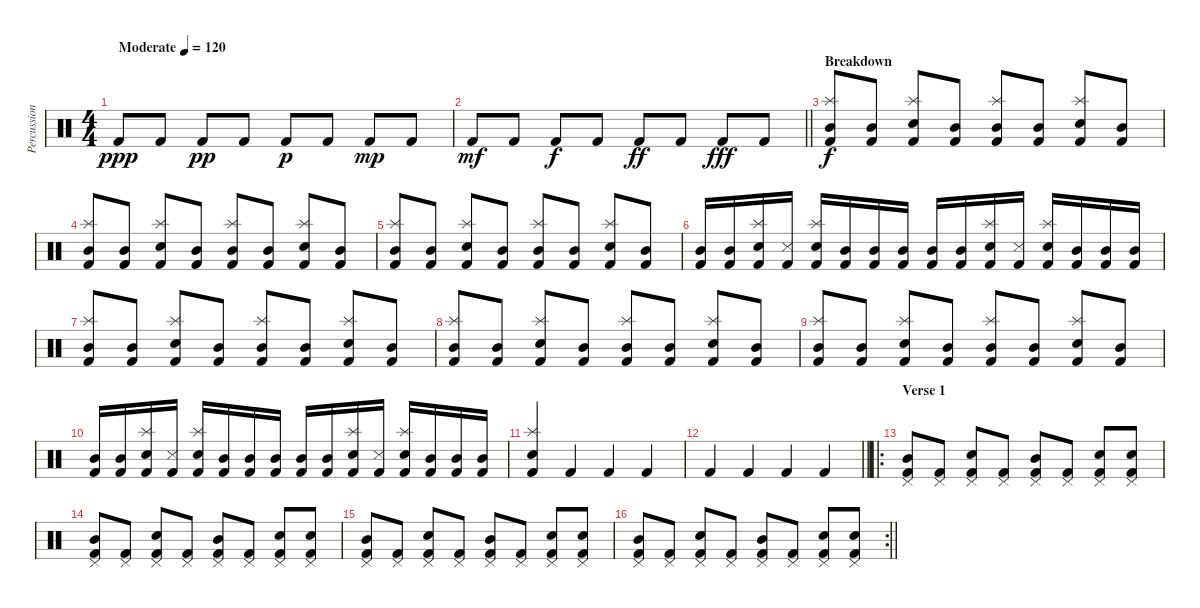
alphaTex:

\track ("Percussion" "Percussion") {instrument percussion}
\staff {score}
\articulation defaults
\ts (4 4)
\tempo (120 "Moderate")
\clef neutral
\ks c "Kick (hit) 2".8{dy ppp} "Kick (hit) 2".8 "Kick (hit) 2".8{dy pp} "Kick (hit) 2".8 "Kick (hit) 2".8{dy p} "Kick (hit) 2".8 "Kick (hit) 2".8{dy mp} "Kick (hit) 2".8
|
\barLineRight lightlight "Kick (hit) 2".8{dy mf} "Kick (hit) 2".8 "Kick (hit) 2".8{dy f} "Kick (hit) 2".8 "Kick (hit) 2".8{dy ff} "Kick (hit) 2".8 "Kick (hit) 2".8{dy fff} "Kick (hit) 2".8
|
\section ("" "Breakdown")
("Splash (hit)" "Mid Tom (hit)" "Kick (hit) 2").8{dy f} ("Mid Tom (hit)" "Kick (hit) 2").8 ("Splash (hit)" "Electric Snare (hit)" "Kick (hit) 2").8 ("Mid Tom (hit)" "Kick (hit) 2").8 ("Splash (hit)" "Mid Tom (hit)" "Kick (hit) 2").8 ("Mid Tom (hit)" "Kick (hit) 2").8 ("Splash (hit)" "Electric Snare (hit)" "Kick (hit) 2").8 ("Mid Tom (hit)" "Kick (hit) 2").8 |
("Splash (hit)" "Mid Tom (hit)" "Kick (hit) 2").8 ("Mid Tom (hit)" "Kick (hit) 2").8 ("Splash (hit)" "Electric Snare (hit)" "Kick (hit) 2").8 ("Mid Tom (hit)" "Kick (hit) 2").8 ("Splash (hit)" "Mid Tom (hit)" "Kick (hit) 2").8 ("Mid Tom (hit)" "Kick (hit) 2").8 ("Splash (hit)" "Electric Snare (hit)" "Kick (hit) 2").8 ("Mid Tom (hit)" "Kick (hit) 2").8 |
("Splash (hit)" "Mid Tom (hit)" "Kick (hit) 2").8 ("Mid Tom (hit)" "Kick (hit) 2").8 ("Splash (hit)" "Electric Snare (hit)" "Kick (hit) 2").8 ("Mid Tom (hit)" "Kick (hit) 2").8 ("Splash (hit)" "Mid Tom (hit)" "Kick (hit) 2").8 ("Mid Tom (hit)" "Kick (hit) 2").8 ("Splash (hit)" "Electric Snare (hit)" "Kick (hit) 2").8 ("Mid Tom (hit)" "Kick (hit) 2").8 |
("Mid Tom (hit)" "Kick (hit) 2").16 ("Mid Tom (hit)" "Kick (hit) 2").16 ("Splash (hit)" "Electric Snare (hit)" "Kick (hit) 2").16 ("Metronome (hit)" "Kick (hit) 2").16 ("Splash (hit)" "Snare (hit)" "Kick (hit) 2").16 ("Mid Tom (hit)" "Kick (hit) 2").16 ("Mid Tom (hit)" "Kick (hit) 2").16 ("Mid Tom (hit)" "Kick (hit) 2").16 ("Mid Tom (hit)" "Kick (hit) 2").16 ("Mid Tom (hit)" "Kick (hit) 2").16 ("Splash (hit)" "Electric Snare (hit)" "Kick (hit) 2").16 ("Metronome (hit)" "Kick (hit) 2").16 ("Splash (hit)" "Snare (hit)" "Kick (hit) 2").16 ("Mid Tom (hit)" "Kick (hit) 2").16 ("Mid Tom (hit)" "Kick (hit) 2").16 ("Mid Tom (hit)" "Kick (hit) 2").16 |
("Splash (hit)" "Mid Tom (hit)" "Kick (hit) 2").8 ("Mid Tom (hit)" "Kick (hit) 2").8 ("Splash (hit)" "Electric Snare (hit)" "Kick (hit) 2").8 ("Mid Tom (hit)" "Kick (hit) 2").8 ("Splash (hit)" "Mid Tom (hit)" "Kick (hit) 2").8 ("Mid Tom (hit)" "Kick (hit) 2").8 ("Splash (hit)" "Electric Snare (hit)" "Kick (hit) 2").8 ("Mid Tom (hit)" "Kick (hit) 2").8 |
("Splash (hit)" "Mid Tom (hit)" "Kick (hit) 2").8 ("Mid Tom (hit)" "Kick (hit) 2").8 ("Splash (hit)" "Electric Snare (hit)" "Kick (hit) 2").8 ("Mid Tom (hit)" "Kick (hit) 2").8 ("Splash (hit)" "Mid Tom (hit)" "Kick (hit) 2").8 ("Mid Tom (hit)" "Kick (hit) 2").8 ("Splash (hit)" "Electric Snare (hit)" "Kick (hit) 2").8 ("Mid Tom (hit)" "Kick (hit) 2").8 |
("Splash (hit)" "Mid Tom (hit)" "Kick (hit) 2").8 ("Mid Tom (hit)" "Kick (hit) 2").8 ("Splash (hit)" "Electric Snare (hit)" "Kick (hit) 2").8 ("Mid Tom (hit)" "Kick (hit) 2").8 ("Splash (hit)" "Mid Tom (hit)" "Kick (hit) 2").8 ("Mid Tom (hit)" "Kick (hit) 2").8 ("Splash (hit)" "Electric Snare (hit)" "Kick (hit) 2").8 ("Mid Tom (hit)" "Kick (hit) 2").8 |
("Mid Tom (hit)" "Kick (hit) 2").16 ("Mid Tom (hit)" "Kick (hit) 2").16 ("Splash (hit)" "Electric Snare (hit)" "Kick (hit) 2").16 ("Metronome (hit)" "Kick (hit) 2").16 ("Splash (hit)" "Snare (hit)" "Kick (hit) 2").16 ("Mid Tom (hit)" "Kick (hit) 2").16 ("Mid Tom (hit)" "Kick (hit) 2").16 ("Mid Tom (hit)" "Kick (hit) 2").16 ("Mid Tom (hit)" "Kick (hit) 2").16 ("Mid Tom (hit)" "Kick (hit) 2").16 ("Splash (hit)" "Electric Snare (hit)" "Kick (hit) 2").16 ("Metronome (hit)" "Kick (hit) 2").16 ("Splash (hit)" "Snare (hit)" "Kick (hit) 2").16 ("Mid Tom (hit)" "Kick (hit) 2").16 ("Mid Tom (hit)" "Kick (hit) 2").16 ("Mid Tom (hit)" "Kick (hit) 2").16 |
("Splash (hit)" "Electric Snare (hit)" "Kick (hit) 2").4 "Kick (hit) 2".4 "Kick (hit) 2".4 "Kick (hit) 2".4 |
\barLineRight lightlight "Kick (hit) 2".4 "Kick (hit) 2".4 "Kick (hit) 2".4 "Kick (hit) 2".4
|
\ro
\section ("" "Verse 1")
("Pedal Hi-Hat (hit)" "Mid Tom (hit)" "Kick (hit) 2").8 ("Pedal Hi-Hat (hit)" "Kick (hit) 2").8 ("Pedal Hi-Hat (hit)" "Electric Snare (hit)" "Kick (hit) 2").8 ("Pedal Hi-Hat (hit)" "Kick (hit) 2").8 ("Pedal Hi-Hat (hit)" "Mid Tom (hit)" "Kick (hit) 2").8 ("Pedal Hi-Hat (hit)" "Kick (hit) 2").8 ("Pedal Hi-Hat (hit)" "Electric Snare (hit)" "Kick (hit) 2").8 ("Pedal Hi-Hat (hit)" "Electric Snare (hit)" "Kick (hit) 2").8 |
("Pedal Hi-Hat (hit)" "Mid Tom (hit)" "Kick (hit) 2").8 ("Pedal Hi-Hat (hit)" "Kick (hit) 2").8 ("Pedal Hi-Hat (hit)" "Electric Snare (hit)" "Kick (hit) 2").8 ("Pedal Hi-Hat (hit)" "Kick (hit) 2").8 ("Pedal Hi-Hat (hit)" "Mid Tom (hit)" "Kick (hit) 2").8 ("Pedal Hi-Hat (hit)" "Kick (hit) 2").8 ("Pedal Hi-Hat (hit)" "Electric Snare (hit)" "Kick (hit) 2").8 ("Pedal Hi-Hat (hit)" "Electric Snare (hit)" "Kick (hit) 2").8 |
("Pedal Hi-Hat (hit)" "Mid Tom (hit)" "Kick (hit) 2").8 ("Pedal Hi-Hat (hit)" "Kick (hit) 2").8 ("Pedal Hi-Hat (hit)" "Electric Snare (hit)" "Kick (hit) 2").8 ("Pedal Hi-Hat (hit)" "Kick (hit) 2").8 ("Pedal Hi-Hat (hit)" "Mid Tom (hit)" "Kick (hit) 2").8 ("Pedal Hi-Hat (hit)" "Kick (hit) 2").8 ("Pedal Hi-Hat (hit)" "Electric Snare (hit)" "Kick (hit) 2").8 ("Pedal Hi-Hat (hit)" "Electric Snare (hit)" "Kick (hit) 2").8 |
\rc 2
\barLineRight lightlight
("Pedal Hi-Hat (hit)" "Mid Tom (hit)" "Kick (hit) 2").8 ("Pedal Hi-Hat (hit)" "Kick (hit) 2").8 ("Pedal Hi-Hat (hit)" "Electric Snare (hit)" "Kick (hit) 2").8 ("Pedal Hi-Hat (hit)" "Kick (hit) 2").8 ("Pedal Hi-Hat (hit)" "Mid Tom (hit)" "Kick (hit) 2").8 ("Pedal Hi-Hat (hit)" "Kick (hit) 2").8 ("Pedal Hi-Hat (hit)" "Electric Snare (hit)" "Kick (hit) 2").8 ("Pedal Hi-Hat (hit)" "Electric Snare (hit)" "Kick (hit) 2").8
